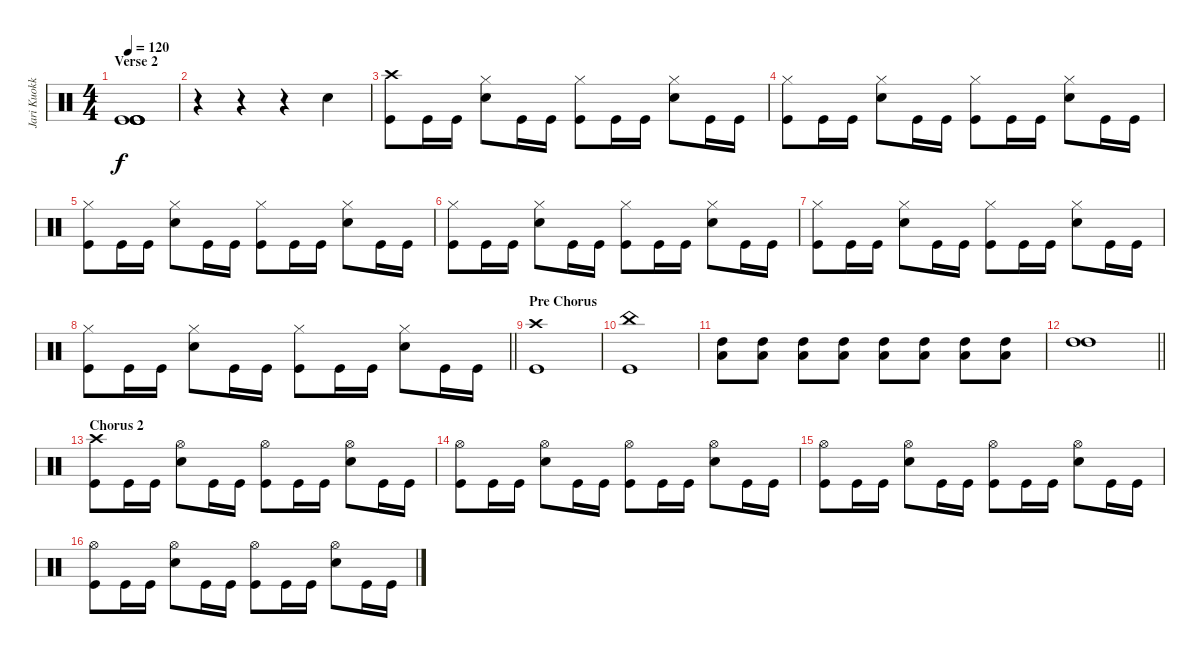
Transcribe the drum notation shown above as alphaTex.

\track ("Jari Kuokkanen" "Jari Kuokk") {instrument percussion bank 255}
\staff {score}
\articulation defaults
\ts (4 4)
\section ("" "Verse 2")
\tempo 120
\clef neutral
\ks c
("Kick (hit)" "Kick (hit)" "Kick (hit)" "Kick (hit)" "Kick (hit)").1{dy f} |
r.4 r.4 r.4 "Snare (hit) 2".4 |
("Crash high (hit)" "Kick (hit)").8 "Kick (hit)".16 "Kick (hit)".16 ("Hi-Hat (closed)" "Snare (hit) 2").8 "Kick (hit)".16 "Kick (hit)".16 ("Hi-Hat (closed)" "Kick (hit)").8 "Kick (hit)".16 "Kick (hit)".16 ("Hi-Hat (closed)" "Snare (hit) 2").8 "Kick (hit)".16 "Kick (hit)".16 |
("Hi-Hat (closed)" "Kick (hit)").8 "Kick (hit)".16 "Kick (hit)".16 ("Hi-Hat (closed)" "Snare (hit) 2").8 "Kick (hit)".16 "Kick (hit)".16 ("Hi-Hat (closed)" "Kick (hit)").8 "Kick (hit)".16 "Kick (hit)".16 ("Hi-Hat (closed)" "Snare (hit) 2").8 "Kick (hit)".16 "Kick (hit)".16 |
("Hi-Hat (closed)" "Kick (hit)").8 "Kick (hit)".16 "Kick (hit)".16 ("Hi-Hat (closed)" "Snare (hit) 2").8 "Kick (hit)".16 "Kick (hit)".16 ("Hi-Hat (closed)" "Kick (hit)").8 "Kick (hit)".16 "Kick (hit)".16 ("Hi-Hat (closed)" "Snare (hit) 2").8 "Kick (hit)".16 "Kick (hit)".16 |
("Hi-Hat (closed)" "Kick (hit)").8 "Kick (hit)".16 "Kick (hit)".16 ("Hi-Hat (closed)" "Snare (hit) 2").8 "Kick (hit)".16 "Kick (hit)".16 ("Hi-Hat (closed)" "Kick (hit)").8 "Kick (hit)".16 "Kick (hit)".16 ("Hi-Hat (closed)" "Snare (hit) 2").8 "Kick (hit)".16 "Kick (hit)".16 |
("Hi-Hat (closed)" "Kick (hit)").8 "Kick (hit)".16 "Kick (hit)".16 ("Hi-Hat (closed)" "Snare (hit) 2").8 "Kick (hit)".16 "Kick (hit)".16 ("Hi-Hat (closed)" "Kick (hit)").8 "Kick (hit)".16 "Kick (hit)".16 ("Hi-Hat (closed)" "Snare (hit) 2").8 "Kick (hit)".16 "Kick (hit)".16 |
\barLineRight lightlight
("Hi-Hat (closed)" "Kick (hit)").8 "Kick (hit)".16 "Kick (hit)".16 ("Hi-Hat (closed)" "Snare (hit) 2").8 "Kick (hit)".16 "Kick (hit)".16 ("Hi-Hat (closed)" "Kick (hit)").8 "Kick (hit)".16 "Kick (hit)".16 ("Hi-Hat (closed)" "Snare (hit) 2").8 "Kick (hit)".16 "Kick (hit)".16 |
\section ("" "Pre Chorus")
("Crash high (hit)" "Kick (hit)").1 |
("China (hit)" "Kick (hit)").1 |
("Low Tom (hit)" "High Tom (hit)").8 ("Low Tom (hit)" "High Tom (hit)").8 ("Low Tom (hit)" "High Tom (hit)").8 ("Low Tom (hit)" "High Tom (hit)").8 ("Low Tom (hit)" "High Tom (hit)").8 ("Low Tom (hit)" "High Tom (hit)").8 ("Low Tom (hit)" "High Tom (hit)").8 ("Low Tom (hit)" "High Tom (hit)").8 |
\barLineRight lightlight
("High Tom (hit)" "High Tom (hit)").1 |
\section ("" "Chorus 2")
("Crash high (hit)" "Kick (hit)").8 "Kick (hit)".16 "Kick (hit)".16 ("Hi-Hat (open)" "Snare (hit) 2").8 "Kick (hit)".16 "Kick (hit)".16 ("Hi-Hat (open)" "Kick (hit)").8 "Kick (hit)".16 "Kick (hit)".16 ("Hi-Hat (open)" "Snare (hit) 2").8 "Kick (hit)".16 "Kick (hit)".16 |
("Hi-Hat (open)" "Kick (hit)").8 "Kick (hit)".16 "Kick (hit)".16 ("Hi-Hat (open)" "Snare (hit) 2").8 "Kick (hit)".16 "Kick (hit)".16 ("Hi-Hat (open)" "Kick (hit)").8 "Kick (hit)".16 "Kick (hit)".16 ("Hi-Hat (open)" "Snare (hit) 2").8 "Kick (hit)".16 "Kick (hit)".16 |
("Hi-Hat (open)" "Kick (hit)").8 "Kick (hit)".16 "Kick (hit)".16 ("Hi-Hat (open)" "Snare (hit) 2").8 "Kick (hit)".16 "Kick (hit)".16 ("Hi-Hat (open)" "Kick (hit)").8 "Kick (hit)".16 "Kick (hit)".16 ("Hi-Hat (open)" "Snare (hit) 2").8 "Kick (hit)".16 "Kick (hit)".16 |
("Hi-Hat (open)" "Kick (hit)").8 "Kick (hit)".16 "Kick (hit)".16 ("Hi-Hat (open)" "Snare (hit) 2").8 "Kick (hit)".16 "Kick (hit)".16 ("Hi-Hat (open)" "Kick (hit)").8 "Kick (hit)".16 "Kick (hit)".16 ("Hi-Hat (open)" "Snare (hit) 2").8 "Kick (hit)".16 "Kick (hit)".16
